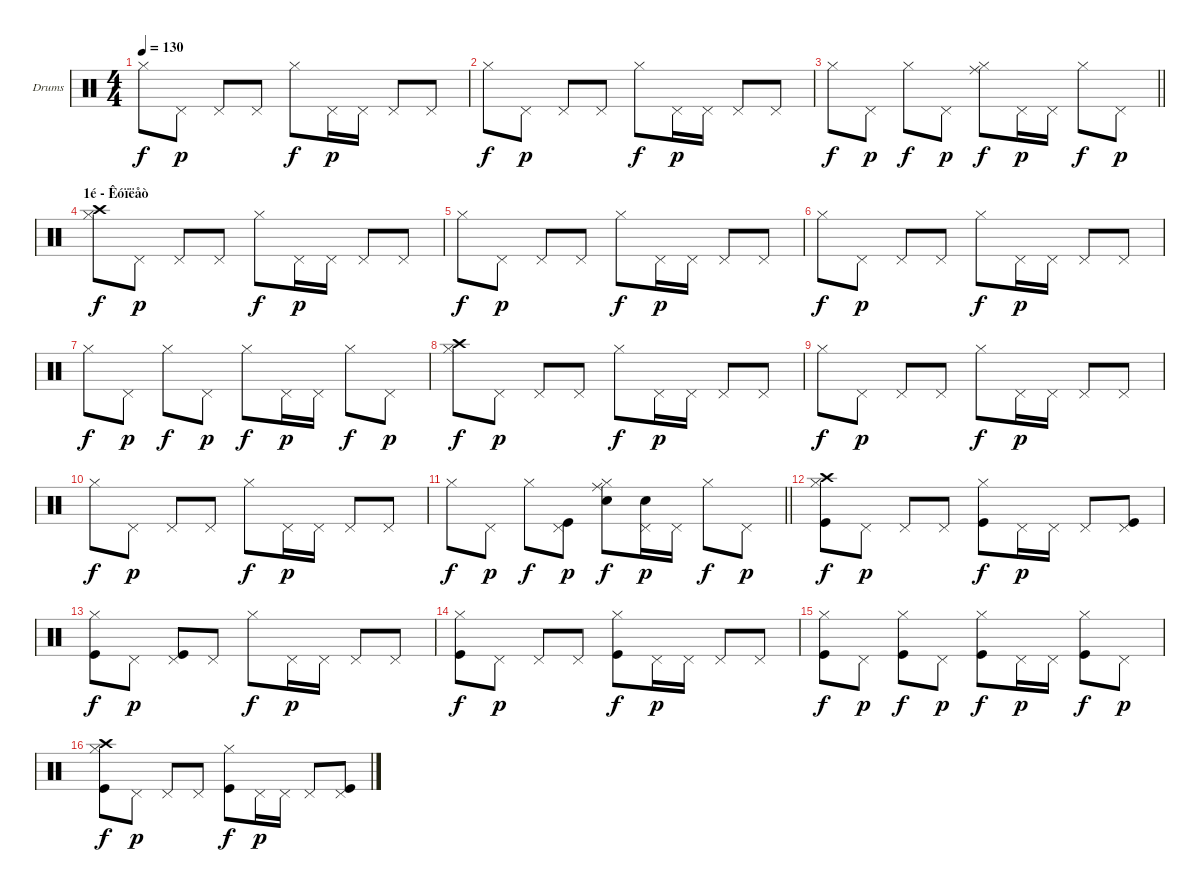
\bracketExtendMode groupsimilarinstruments
\firstSystemTrackNameOrientation horizontal
\otherSystemsTrackNameOrientation horizontal
\track ("Drumkit" "Drums") {instrument percussion}
\staff {score}
\articulation defaults
\ts (4 4)
\tempo 130
\clef neutral
\ks c "Hi-Hat (closed)".8{dy f} "Pedal Hi-Hat (hit)".8{dy p} "Pedal Hi-Hat (hit)".8 "Pedal Hi-Hat (hit)".8 "Hi-Hat (closed)".8{dy f} "Pedal Hi-Hat (hit)".16{dy p} "Pedal Hi-Hat (hit)".16 "Pedal Hi-Hat (hit)".8 "Pedal Hi-Hat (hit)".8
|
"Hi-Hat (closed)".8{dy f} "Pedal Hi-Hat (hit)".8{dy p} "Pedal Hi-Hat (hit)".8 "Pedal Hi-Hat (hit)".8 "Hi-Hat (closed)".8{dy f} "Pedal Hi-Hat (hit)".16{dy p} "Pedal Hi-Hat (hit)".16 "Pedal Hi-Hat (hit)".8 "Pedal Hi-Hat (hit)".8 |
\barLineRight lightlight "Hi-Hat (closed)".8{dy f} "Pedal Hi-Hat (hit)".8{dy p} "Hi-Hat (closed)".8{dy f} "Pedal Hi-Hat (hit)".8{dy p}
("Ride (middle)" "Hi-Hat (closed)").8{dy f} "Pedal Hi-Hat (hit)".16{dy p} "Pedal Hi-Hat (hit)".16 "Hi-Hat (closed)".8{dy f} "Pedal Hi-Hat (hit)".8{dy p} |
\section ("" "1é - Êóïëåò")
("Hi-Hat (closed)" "Crash high (hit)").8{dy f} "Pedal Hi-Hat (hit)".8{dy p} "Pedal Hi-Hat (hit)".8 "Pedal Hi-Hat (hit)".8 "Hi-Hat (closed)".8{dy f} "Pedal Hi-Hat (hit)".16{dy p} "Pedal Hi-Hat (hit)".16 "Pedal Hi-Hat (hit)".8 "Pedal Hi-Hat (hit)".8 |
"Hi-Hat (closed)".8{dy f} "Pedal Hi-Hat (hit)".8{dy p} "Pedal Hi-Hat (hit)".8 "Pedal Hi-Hat (hit)".8 "Hi-Hat (closed)".8{dy f} "Pedal Hi-Hat (hit)".16{dy p} "Pedal Hi-Hat (hit)".16 "Pedal Hi-Hat (hit)".8 "Pedal Hi-Hat (hit)".8 |
"Hi-Hat (closed)".8{dy f} "Pedal Hi-Hat (hit)".8{dy p} "Pedal Hi-Hat (hit)".8 "Pedal Hi-Hat (hit)".8 "Hi-Hat (closed)".8{dy f} "Pedal Hi-Hat (hit)".16{dy p} "Pedal Hi-Hat (hit)".16 "Pedal Hi-Hat (hit)".8 "Pedal Hi-Hat (hit)".8 |
"Hi-Hat (closed)".8{dy f} "Pedal Hi-Hat (hit)".8{dy p} "Hi-Hat (closed)".8{dy f} "Pedal Hi-Hat (hit)".8{dy p} "Hi-Hat (closed)".8{dy f} "Pedal Hi-Hat (hit)".16{dy p} "Pedal Hi-Hat (hit)".16 "Hi-Hat (closed)".8{dy f} "Pedal Hi-Hat (hit)".8{dy p} |
("Hi-Hat (closed)" "Crash high (hit)").8{dy f} "Pedal Hi-Hat (hit)".8{dy p} "Pedal Hi-Hat (hit)".8 "Pedal Hi-Hat (hit)".8 "Hi-Hat (closed)".8{dy f} "Pedal Hi-Hat (hit)".16{dy p} "Pedal Hi-Hat (hit)".16 "Pedal Hi-Hat (hit)".8 "Pedal Hi-Hat (hit)".8 |
"Hi-Hat (closed)".8{dy f} "Pedal Hi-Hat (hit)".8{dy p} "Pedal Hi-Hat (hit)".8 "Pedal Hi-Hat (hit)".8 "Hi-Hat (closed)".8{dy f} "Pedal Hi-Hat (hit)".16{dy p} "Pedal Hi-Hat (hit)".16 "Pedal Hi-Hat (hit)".8 "Pedal Hi-Hat (hit)".8 |
"Hi-Hat (closed)".8{dy f} "Pedal Hi-Hat (hit)".8{dy p} "Pedal Hi-Hat (hit)".8 "Pedal Hi-Hat (hit)".8 "Hi-Hat (closed)".8{dy f} "Pedal Hi-Hat (hit)".16{dy p} "Pedal Hi-Hat (hit)".16 "Pedal Hi-Hat (hit)".8 "Pedal Hi-Hat (hit)".8 |
\barLineRight lightlight "Hi-Hat (closed)".8{dy f} "Pedal Hi-Hat (hit)".8{dy p} "Hi-Hat (closed)".8{dy f}
("Pedal Hi-Hat (hit)" "Kick (hit)").8{dy p} ("Ride (middle)" "Hi-Hat (closed)" "Snare (hit) 2").8{dy f} ("Pedal Hi-Hat (hit)" "Snare (hit) 2").16{dy p} "Pedal Hi-Hat (hit)".16 "Hi-Hat (closed)".8{dy f} "Pedal Hi-Hat (hit)".8{dy p} |
("Hi-Hat (closed)" "Kick (hit)" "Crash high (hit)").8{dy f} "Pedal Hi-Hat (hit)".8{dy p} "Pedal Hi-Hat (hit)".8 "Pedal Hi-Hat (hit)".8 ("Kick (hit)" "Hi-Hat (closed)").8{dy f} "Pedal Hi-Hat (hit)".16{dy p} "Pedal Hi-Hat (hit)".16 "Pedal Hi-Hat (hit)".8 ("Pedal Hi-Hat (hit)" "Kick (hit)").8 |
("Kick (hit)" "Hi-Hat (closed)").8{dy f} "Pedal Hi-Hat (hit)".8{dy p} ("Pedal Hi-Hat (hit)" "Kick (hit)").8 "Pedal Hi-Hat (hit)".8 "Hi-Hat (closed)".8{dy f} "Pedal Hi-Hat (hit)".16{dy p} "Pedal Hi-Hat (hit)".16 "Pedal Hi-Hat (hit)".8 "Pedal Hi-Hat (hit)".8 |
("Hi-Hat (closed)" "Kick (hit)").8{dy f} "Pedal Hi-Hat (hit)".8{dy p} "Pedal Hi-Hat (hit)".8 "Pedal Hi-Hat (hit)".8 ("Kick (hit)" "Hi-Hat (closed)").8{dy f} "Pedal Hi-Hat (hit)".16{dy p} "Pedal Hi-Hat (hit)".16 "Pedal Hi-Hat (hit)".8 "Pedal Hi-Hat (hit)".8 |
("Kick (hit)" "Hi-Hat (closed)").8{dy f} "Pedal Hi-Hat (hit)".8{dy p} ("Kick (hit)" "Hi-Hat (closed)").8{dy f} "Pedal Hi-Hat (hit)".8{dy p} ("Kick (hit)" "Hi-Hat (closed)").8{dy f} "Pedal Hi-Hat (hit)".16{dy p} "Pedal Hi-Hat (hit)".16 ("Kick (hit)" "Hi-Hat (closed)").8{dy f} "Pedal Hi-Hat (hit)".8{dy p} |
("Hi-Hat (closed)" "Kick (hit)" "Crash high (hit)").8{dy f} "Pedal Hi-Hat (hit)".8{dy p} "Pedal Hi-Hat (hit)".8 "Pedal Hi-Hat (hit)".8 ("Kick (hit)" "Hi-Hat (closed)").8{dy f} "Pedal Hi-Hat (hit)".16{dy p} "Pedal Hi-Hat (hit)".16 "Pedal Hi-Hat (hit)".8 ("Pedal Hi-Hat (hit)" "Kick (hit)").8
